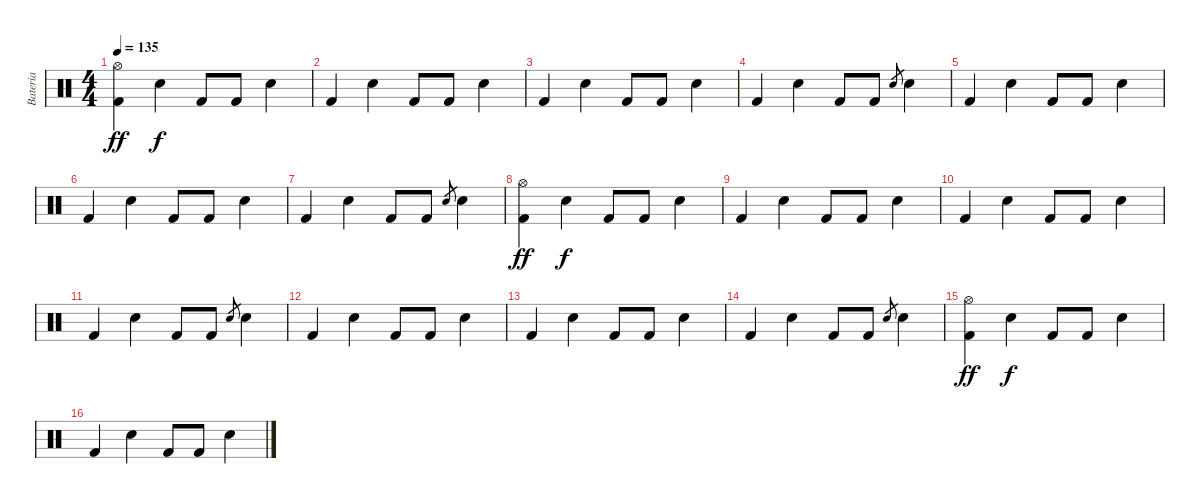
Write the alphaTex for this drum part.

\track ("Bateria" "Bateria") {instrument percussion}
\staff {score}
\articulation defaults
\ts (4 4)
\tempo 135
\clef neutral
\ks c
("Hi-Hat (open)" "Kick (hit) 2").4{dy ff} "Electric Snare (hit)".4{dy f} "Kick (hit) 2".8 "Kick (hit) 2".8 "Electric Snare (hit)".4 |
"Kick (hit) 2".4 "Electric Snare (hit)".4 "Kick (hit) 2".8 "Kick (hit) 2".8 "Electric Snare (hit)".4 |
"Kick (hit) 2".4 "Electric Snare (hit)".4 "Kick (hit) 2".8 "Kick (hit) 2".8 "Electric Snare (hit)".4 |
"Kick (hit) 2".4 "Electric Snare (hit)".4 "Kick (hit) 2".8 "Kick (hit) 2".8 "Electric Snare (hit)".8{gr} "Electric Snare (hit)".4 |
"Kick (hit) 2".4 "Electric Snare (hit)".4 "Kick (hit) 2".8 "Kick (hit) 2".8 "Electric Snare (hit)".4 |
"Kick (hit) 2".4 "Electric Snare (hit)".4 "Kick (hit) 2".8 "Kick (hit) 2".8 "Electric Snare (hit)".4 |
"Kick (hit) 2".4 "Electric Snare (hit)".4 "Kick (hit) 2".8 "Kick (hit) 2".8 "Electric Snare (hit)".8{gr} "Electric Snare (hit)".4 |
("Hi-Hat (open)" "Kick (hit) 2").4{dy ff} "Electric Snare (hit)".4{dy f} "Kick (hit) 2".8 "Kick (hit) 2".8 "Electric Snare (hit)".4 |
"Kick (hit) 2".4 "Electric Snare (hit)".4 "Kick (hit) 2".8 "Kick (hit) 2".8 "Electric Snare (hit)".4 |
"Kick (hit) 2".4 "Electric Snare (hit)".4 "Kick (hit) 2".8 "Kick (hit) 2".8 "Electric Snare (hit)".4 |
"Kick (hit) 2".4 "Electric Snare (hit)".4 "Kick (hit) 2".8 "Kick (hit) 2".8 "Electric Snare (hit)".8{gr} "Electric Snare (hit)".4 |
"Kick (hit) 2".4 "Electric Snare (hit)".4 "Kick (hit) 2".8 "Kick (hit) 2".8 "Electric Snare (hit)".4 |
"Kick (hit) 2".4 "Electric Snare (hit)".4 "Kick (hit) 2".8 "Kick (hit) 2".8 "Electric Snare (hit)".4 |
"Kick (hit) 2".4 "Electric Snare (hit)".4 "Kick (hit) 2".8 "Kick (hit) 2".8 "Electric Snare (hit)".8{gr} "Electric Snare (hit)".4 |
("Hi-Hat (open)" "Kick (hit) 2").4{dy ff} "Electric Snare (hit)".4{dy f} "Kick (hit) 2".8 "Kick (hit) 2".8 "Electric Snare (hit)".4 |
"Kick (hit) 2".4 "Electric Snare (hit)".4 "Kick (hit) 2".8 "Kick (hit) 2".8 "Electric Snare (hit)".4
